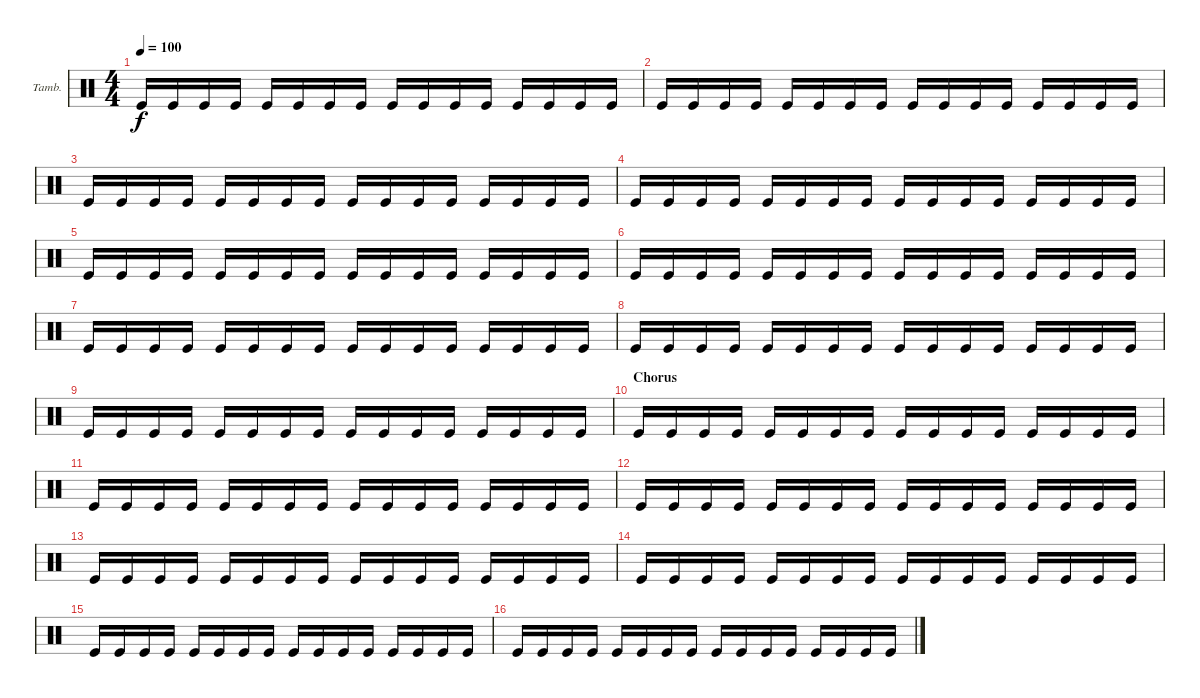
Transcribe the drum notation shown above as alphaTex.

\bracketExtendMode groupsimilarinstruments
\firstSystemTrackNameOrientation horizontal
\otherSystemsTrackNameOrientation horizontal
\track ("Tambourine" "Tamb.") {instrument percussion}
\staff {score}
\articulation defaults
\ts (4 4)
\tempo 100
\clef neutral
\ks c "Kick (hit)".16{dy f} "Kick (hit)".16 "Kick (hit)".16 "Kick (hit)".16 "Kick (hit)".16 "Kick (hit)".16 "Kick (hit)".16 "Kick (hit)".16 "Kick (hit)".16 "Kick (hit)".16 "Kick (hit)".16 "Kick (hit)".16 "Kick (hit)".16 "Kick (hit)".16 "Kick (hit)".16 "Kick (hit)".16
|
"Kick (hit)".16 "Kick (hit)".16 "Kick (hit)".16 "Kick (hit)".16 "Kick (hit)".16 "Kick (hit)".16 "Kick (hit)".16 "Kick (hit)".16 "Kick (hit)".16 "Kick (hit)".16 "Kick (hit)".16 "Kick (hit)".16 "Kick (hit)".16 "Kick (hit)".16 "Kick (hit)".16 "Kick (hit)".16 |
"Kick (hit)".16 "Kick (hit)".16 "Kick (hit)".16 "Kick (hit)".16 "Kick (hit)".16 "Kick (hit)".16 "Kick (hit)".16 "Kick (hit)".16 "Kick (hit)".16 "Kick (hit)".16 "Kick (hit)".16 "Kick (hit)".16 "Kick (hit)".16 "Kick (hit)".16 "Kick (hit)".16 "Kick (hit)".16 |
"Kick (hit)".16 "Kick (hit)".16 "Kick (hit)".16 "Kick (hit)".16 "Kick (hit)".16 "Kick (hit)".16 "Kick (hit)".16 "Kick (hit)".16 "Kick (hit)".16 "Kick (hit)".16 "Kick (hit)".16 "Kick (hit)".16 "Kick (hit)".16 "Kick (hit)".16 "Kick (hit)".16 "Kick (hit)".16 |
"Kick (hit)".16 "Kick (hit)".16 "Kick (hit)".16 "Kick (hit)".16 "Kick (hit)".16 "Kick (hit)".16 "Kick (hit)".16 "Kick (hit)".16 "Kick (hit)".16 "Kick (hit)".16 "Kick (hit)".16 "Kick (hit)".16 "Kick (hit)".16 "Kick (hit)".16 "Kick (hit)".16 "Kick (hit)".16 |
"Kick (hit)".16 "Kick (hit)".16 "Kick (hit)".16 "Kick (hit)".16 "Kick (hit)".16 "Kick (hit)".16 "Kick (hit)".16 "Kick (hit)".16 "Kick (hit)".16 "Kick (hit)".16 "Kick (hit)".16 "Kick (hit)".16 "Kick (hit)".16 "Kick (hit)".16 "Kick (hit)".16 "Kick (hit)".16 |
"Kick (hit)".16 "Kick (hit)".16 "Kick (hit)".16 "Kick (hit)".16 "Kick (hit)".16 "Kick (hit)".16 "Kick (hit)".16 "Kick (hit)".16 "Kick (hit)".16 "Kick (hit)".16 "Kick (hit)".16 "Kick (hit)".16 "Kick (hit)".16 "Kick (hit)".16 "Kick (hit)".16 "Kick (hit)".16 |
"Kick (hit)".16 "Kick (hit)".16 "Kick (hit)".16 "Kick (hit)".16 "Kick (hit)".16 "Kick (hit)".16 "Kick (hit)".16 "Kick (hit)".16 "Kick (hit)".16 "Kick (hit)".16 "Kick (hit)".16 "Kick (hit)".16 "Kick (hit)".16 "Kick (hit)".16 "Kick (hit)".16 "Kick (hit)".16 |
"Kick (hit)".16 "Kick (hit)".16 "Kick (hit)".16 "Kick (hit)".16 "Kick (hit)".16 "Kick (hit)".16 "Kick (hit)".16 "Kick (hit)".16 "Kick (hit)".16 "Kick (hit)".16 "Kick (hit)".16 "Kick (hit)".16 "Kick (hit)".16 "Kick (hit)".16 "Kick (hit)".16 "Kick (hit)".16 |
\section ("" "Chorus")
"Kick (hit)".16 "Kick (hit)".16 "Kick (hit)".16 "Kick (hit)".16 "Kick (hit)".16 "Kick (hit)".16 "Kick (hit)".16 "Kick (hit)".16 "Kick (hit)".16 "Kick (hit)".16 "Kick (hit)".16 "Kick (hit)".16 "Kick (hit)".16 "Kick (hit)".16 "Kick (hit)".16 "Kick (hit)".16 |
"Kick (hit)".16 "Kick (hit)".16 "Kick (hit)".16 "Kick (hit)".16 "Kick (hit)".16 "Kick (hit)".16 "Kick (hit)".16 "Kick (hit)".16 "Kick (hit)".16 "Kick (hit)".16 "Kick (hit)".16 "Kick (hit)".16 "Kick (hit)".16 "Kick (hit)".16 "Kick (hit)".16 "Kick (hit)".16 |
"Kick (hit)".16 "Kick (hit)".16 "Kick (hit)".16 "Kick (hit)".16 "Kick (hit)".16 "Kick (hit)".16 "Kick (hit)".16 "Kick (hit)".16 "Kick (hit)".16 "Kick (hit)".16 "Kick (hit)".16 "Kick (hit)".16 "Kick (hit)".16 "Kick (hit)".16 "Kick (hit)".16 "Kick (hit)".16 |
"Kick (hit)".16 "Kick (hit)".16 "Kick (hit)".16 "Kick (hit)".16 "Kick (hit)".16 "Kick (hit)".16 "Kick (hit)".16 "Kick (hit)".16 "Kick (hit)".16 "Kick (hit)".16 "Kick (hit)".16 "Kick (hit)".16 "Kick (hit)".16 "Kick (hit)".16 "Kick (hit)".16 "Kick (hit)".16 |
"Kick (hit)".16 "Kick (hit)".16 "Kick (hit)".16 "Kick (hit)".16 "Kick (hit)".16 "Kick (hit)".16 "Kick (hit)".16 "Kick (hit)".16 "Kick (hit)".16 "Kick (hit)".16 "Kick (hit)".16 "Kick (hit)".16 "Kick (hit)".16 "Kick (hit)".16 "Kick (hit)".16 "Kick (hit)".16 |
"Kick (hit)".16 "Kick (hit)".16 "Kick (hit)".16 "Kick (hit)".16 "Kick (hit)".16 "Kick (hit)".16 "Kick (hit)".16 "Kick (hit)".16 "Kick (hit)".16 "Kick (hit)".16 "Kick (hit)".16 "Kick (hit)".16 "Kick (hit)".16 "Kick (hit)".16 "Kick (hit)".16 "Kick (hit)".16 |
"Kick (hit)".16 "Kick (hit)".16 "Kick (hit)".16 "Kick (hit)".16 "Kick (hit)".16 "Kick (hit)".16 "Kick (hit)".16 "Kick (hit)".16 "Kick (hit)".16 "Kick (hit)".16 "Kick (hit)".16 "Kick (hit)".16 "Kick (hit)".16 "Kick (hit)".16 "Kick (hit)".16 "Kick (hit)".16
